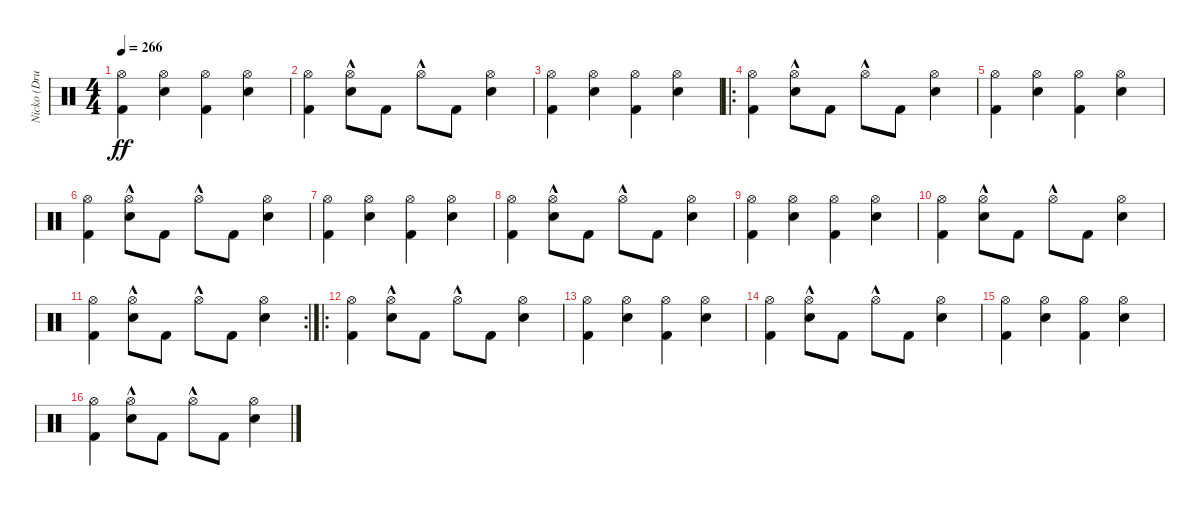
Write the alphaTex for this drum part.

\track ("Nicko (Drums)" "Nicko (Dru") {instrument percussion}
\staff {score}
\articulation defaults
\ts (4 4)
\tempo 266
\clef neutral
\ks c
("Kick (hit) 2" "Hi-Hat (open)").4{dy ff} ("Snare (hit) 2" "Hi-Hat (open)").4 ("Kick (hit) 2" "Hi-Hat (open)").4 ("Snare (hit) 2" "Hi-Hat (open)").4 |
("Kick (hit) 2" "Hi-Hat (open)").4 ("Snare (hit) 2" "Hi-Hat (open)"{hac}).8 "Kick (hit) 2".8 "Hi-Hat (open)"{hac}.8 "Kick (hit) 2".8 ("Snare (hit) 2" "Hi-Hat (open)").4 |
("Kick (hit) 2" "Hi-Hat (open)").4 ("Snare (hit) 2" "Hi-Hat (open)").4 ("Kick (hit) 2" "Hi-Hat (open)").4 ("Snare (hit) 2" "Hi-Hat (open)").4 |
\ro
("Kick (hit) 2" "Hi-Hat (open)").4 ("Snare (hit) 2" "Hi-Hat (open)"{hac}).8 "Kick (hit) 2".8 "Hi-Hat (open)"{hac}.8 "Kick (hit) 2".8 ("Snare (hit) 2" "Hi-Hat (open)").4 |
("Kick (hit) 2" "Hi-Hat (open)").4 ("Snare (hit) 2" "Hi-Hat (open)").4 ("Kick (hit) 2" "Hi-Hat (open)").4 ("Snare (hit) 2" "Hi-Hat (open)").4 |
("Kick (hit) 2" "Hi-Hat (open)").4 ("Snare (hit) 2" "Hi-Hat (open)"{hac}).8 "Kick (hit) 2".8 "Hi-Hat (open)"{hac}.8 "Kick (hit) 2".8 ("Snare (hit) 2" "Hi-Hat (open)").4 |
("Kick (hit) 2" "Hi-Hat (open)").4 ("Snare (hit) 2" "Hi-Hat (open)").4 ("Kick (hit) 2" "Hi-Hat (open)").4 ("Snare (hit) 2" "Hi-Hat (open)").4 |
("Kick (hit) 2" "Hi-Hat (open)").4 ("Snare (hit) 2" "Hi-Hat (open)"{hac}).8 "Kick (hit) 2".8 "Hi-Hat (open)"{hac}.8 "Kick (hit) 2".8 ("Snare (hit) 2" "Hi-Hat (open)").4 |
("Kick (hit) 2" "Hi-Hat (open)").4 ("Snare (hit) 2" "Hi-Hat (open)").4 ("Kick (hit) 2" "Hi-Hat (open)").4 ("Snare (hit) 2" "Hi-Hat (open)").4 |
("Kick (hit) 2" "Hi-Hat (open)").4 ("Snare (hit) 2" "Hi-Hat (open)"{hac}).8 "Kick (hit) 2".8 "Hi-Hat (open)"{hac}.8 "Kick (hit) 2".8 ("Snare (hit) 2" "Hi-Hat (open)").4 |
\rc 2
("Kick (hit) 2" "Hi-Hat (open)").4 ("Snare (hit) 2" "Hi-Hat (open)"{hac}).8 "Kick (hit) 2".8 "Hi-Hat (open)"{hac}.8 "Kick (hit) 2".8 ("Snare (hit) 2" "Hi-Hat (open)").4 |
\ro
("Kick (hit) 2" "Hi-Hat (open)").4 ("Snare (hit) 2" "Hi-Hat (open)"{hac}).8 "Kick (hit) 2".8 "Hi-Hat (open)"{hac}.8 "Kick (hit) 2".8 ("Snare (hit) 2" "Hi-Hat (open)").4 |
("Kick (hit) 2" "Hi-Hat (open)").4 ("Snare (hit) 2" "Hi-Hat (open)").4 ("Kick (hit) 2" "Hi-Hat (open)").4 ("Snare (hit) 2" "Hi-Hat (open)").4 |
("Kick (hit) 2" "Hi-Hat (open)").4 ("Snare (hit) 2" "Hi-Hat (open)"{hac}).8 "Kick (hit) 2".8 "Hi-Hat (open)"{hac}.8 "Kick (hit) 2".8 ("Snare (hit) 2" "Hi-Hat (open)").4 |
("Kick (hit) 2" "Hi-Hat (open)").4 ("Snare (hit) 2" "Hi-Hat (open)").4 ("Kick (hit) 2" "Hi-Hat (open)").4 ("Snare (hit) 2" "Hi-Hat (open)").4 |
("Kick (hit) 2" "Hi-Hat (open)").4 ("Snare (hit) 2" "Hi-Hat (open)"{hac}).8 "Kick (hit) 2".8 "Hi-Hat (open)"{hac}.8 "Kick (hit) 2".8 ("Snare (hit) 2" "Hi-Hat (open)").4
